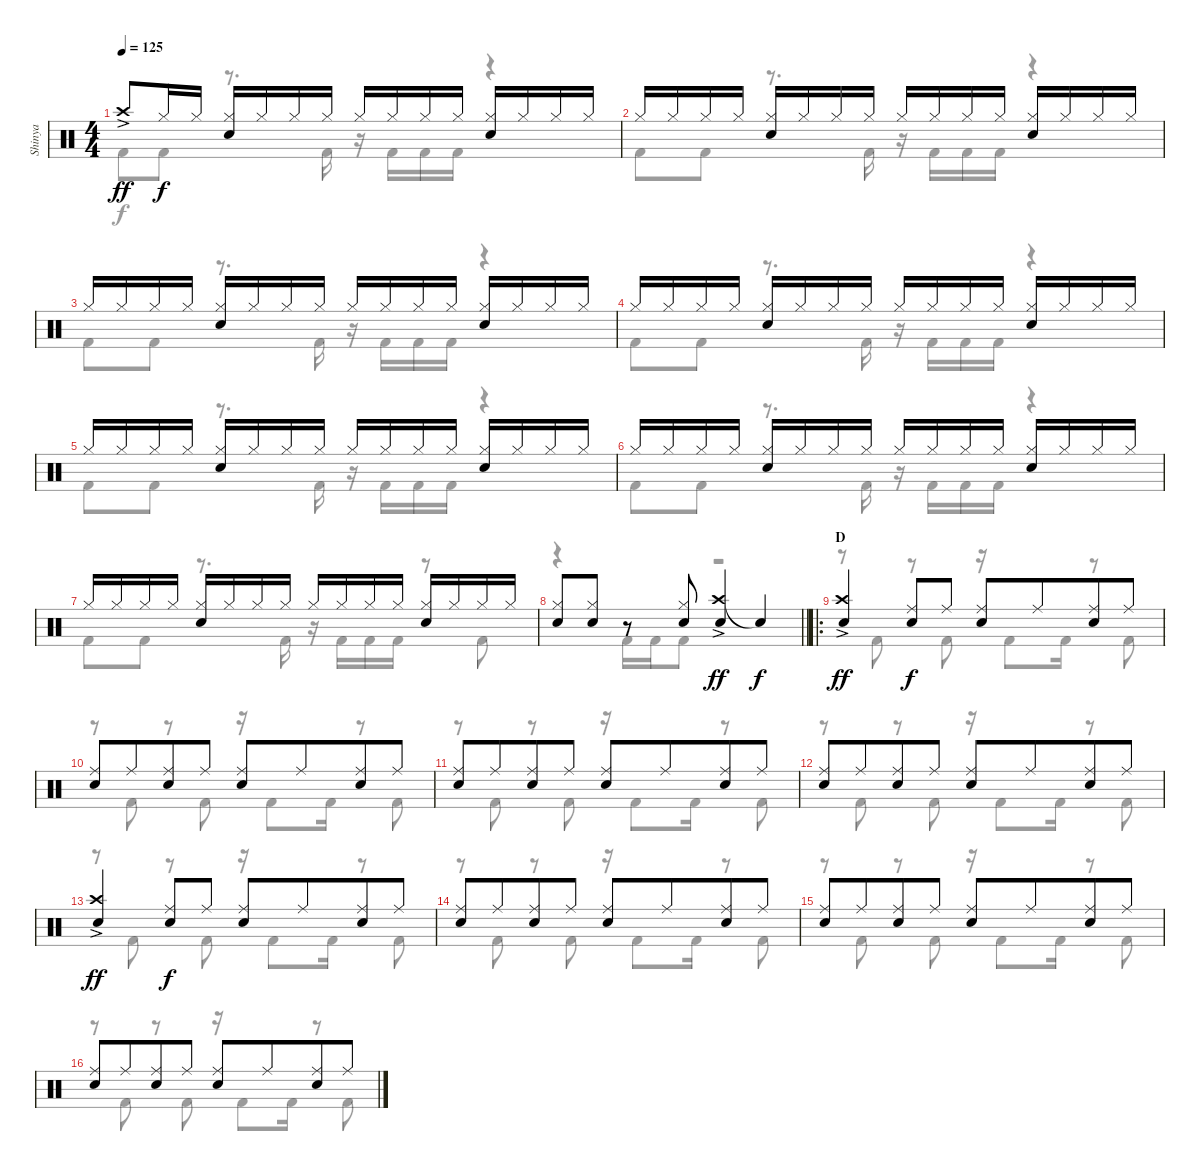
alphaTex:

\track ("Shinya" "Shinya") {instrument percussion}
\staff {score}
\articulation defaults
\voice
\ts (4 4)
\tempo 125
\clef neutral
\ks c "Crash high (hit)"{ac}.8{dy ff} "Hi-Hat (closed)".16{dy f} "Hi-Hat (closed)".16
("Hi-Hat (closed)" "Snare (hit) 2").16 "Hi-Hat (closed)".16 "Hi-Hat (closed)".16 "Hi-Hat (closed)".16 "Hi-Hat (closed)".16 "Hi-Hat (closed)".16 "Hi-Hat (closed)".16 "Hi-Hat (closed)".16 ("Hi-Hat (closed)" "Snare (hit) 2").16 "Hi-Hat (closed)".16 "Hi-Hat (closed)".16 "Hi-Hat (closed)".16 |
"Hi-Hat (closed)".16 "Hi-Hat (closed)".16 "Hi-Hat (closed)".16 "Hi-Hat (closed)".16 ("Hi-Hat (closed)" "Snare (hit) 2").16 "Hi-Hat (closed)".16 "Hi-Hat (closed)".16 "Hi-Hat (closed)".16 "Hi-Hat (closed)".16 "Hi-Hat (closed)".16 "Hi-Hat (closed)".16 "Hi-Hat (closed)".16 ("Hi-Hat (closed)" "Snare (hit) 2").16 "Hi-Hat (closed)".16 "Hi-Hat (closed)".16 "Hi-Hat (closed)".16 |
"Hi-Hat (closed)".16 "Hi-Hat (closed)".16 "Hi-Hat (closed)".16 "Hi-Hat (closed)".16 ("Hi-Hat (closed)" "Snare (hit) 2").16 "Hi-Hat (closed)".16 "Hi-Hat (closed)".16 "Hi-Hat (closed)".16 "Hi-Hat (closed)".16 "Hi-Hat (closed)".16 "Hi-Hat (closed)".16 "Hi-Hat (closed)".16 ("Hi-Hat (closed)" "Snare (hit) 2").16 "Hi-Hat (closed)".16 "Hi-Hat (closed)".16 "Hi-Hat (closed)".16 |
"Hi-Hat (closed)".16 "Hi-Hat (closed)".16 "Hi-Hat (closed)".16 "Hi-Hat (closed)".16 ("Hi-Hat (closed)" "Snare (hit) 2").16 "Hi-Hat (closed)".16 "Hi-Hat (closed)".16 "Hi-Hat (closed)".16 "Hi-Hat (closed)".16 "Hi-Hat (closed)".16 "Hi-Hat (closed)".16 "Hi-Hat (closed)".16 ("Hi-Hat (closed)" "Snare (hit) 2").16 "Hi-Hat (closed)".16 "Hi-Hat (closed)".16 "Hi-Hat (closed)".16 |
"Hi-Hat (closed)".16 "Hi-Hat (closed)".16 "Hi-Hat (closed)".16 "Hi-Hat (closed)".16 ("Hi-Hat (closed)" "Snare (hit) 2").16 "Hi-Hat (closed)".16 "Hi-Hat (closed)".16 "Hi-Hat (closed)".16 "Hi-Hat (closed)".16 "Hi-Hat (closed)".16 "Hi-Hat (closed)".16 "Hi-Hat (closed)".16 ("Hi-Hat (closed)" "Snare (hit) 2").16 "Hi-Hat (closed)".16 "Hi-Hat (closed)".16 "Hi-Hat (closed)".16 |
"Hi-Hat (closed)".16 "Hi-Hat (closed)".16 "Hi-Hat (closed)".16 "Hi-Hat (closed)".16 ("Hi-Hat (closed)" "Snare (hit) 2").16 "Hi-Hat (closed)".16 "Hi-Hat (closed)".16 "Hi-Hat (closed)".16 "Hi-Hat (closed)".16 "Hi-Hat (closed)".16 "Hi-Hat (closed)".16 "Hi-Hat (closed)".16 ("Hi-Hat (closed)" "Snare (hit) 2").16 "Hi-Hat (closed)".16 "Hi-Hat (closed)".16 "Hi-Hat (closed)".16 |
"Hi-Hat (closed)".16 "Hi-Hat (closed)".16 "Hi-Hat (closed)".16 "Hi-Hat (closed)".16 ("Hi-Hat (closed)" "Snare (hit) 2").16 "Hi-Hat (closed)".16 "Hi-Hat (closed)".16 "Hi-Hat (closed)".16 "Hi-Hat (closed)".16 "Hi-Hat (closed)".16 "Hi-Hat (closed)".16 "Hi-Hat (closed)".16 ("Hi-Hat (closed)" "Snare (hit) 2").16 "Hi-Hat (closed)".16 "Hi-Hat (closed)".16 "Hi-Hat (closed)".16 |
\barLineRight lightlight
("Hi-Hat (closed)" "Snare (hit) 2").8 ("Hi-Hat (closed)" "Snare (hit) 2").8 r.8 ("Hi-Hat (closed)" "Snare (hit) 2").8 ("Crash high (hit)"{ac} "Snare (hit) 2").4{dy ff} "Snare (hit)"{t}.4{dy f} |
\ro
\section ("" "D")
("Crash high (hit)"{ac} "Snare (hit) 2").4{dy ff} ("Ride (middle)" "Snare (hit) 2").8{dy f} "Ride (middle)".8 ("Ride (middle)" "Snare (hit) 2").8 "Ride (middle)".8{beam merge} ("Ride (middle)" "Snare (hit) 2").8 "Ride (middle)".8 |
("Ride (middle)" "Snare (hit) 2").8 "Ride (middle)".8{beam merge} ("Ride (middle)" "Snare (hit) 2").8 "Ride (middle)".8 ("Ride (middle)" "Snare (hit) 2").8 "Ride (middle)".8{beam merge} ("Ride (middle)" "Snare (hit) 2").8 "Ride (middle)".8 |
("Ride (middle)" "Snare (hit) 2").8 "Ride (middle)".8{beam merge} ("Ride (middle)" "Snare (hit) 2").8 "Ride (middle)".8 ("Ride (middle)" "Snare (hit) 2").8 "Ride (middle)".8{beam merge} ("Ride (middle)" "Snare (hit) 2").8 "Ride (middle)".8 |
("Ride (middle)" "Snare (hit) 2").8 "Ride (middle)".8{beam merge} ("Ride (middle)" "Snare (hit) 2").8 "Ride (middle)".8 ("Ride (middle)" "Snare (hit) 2").8 "Ride (middle)".8{beam merge} ("Ride (middle)" "Snare (hit) 2").8 "Ride (middle)".8 |
("Crash high (hit)"{ac} "Snare (hit) 2").4{dy ff} ("Ride (middle)" "Snare (hit) 2").8{dy f} "Ride (middle)".8 ("Ride (middle)" "Snare (hit) 2").8 "Ride (middle)".8{beam merge} ("Ride (middle)" "Snare (hit) 2").8 "Ride (middle)".8 |
("Ride (middle)" "Snare (hit) 2").8 "Ride (middle)".8{beam merge} ("Ride (middle)" "Snare (hit) 2").8 "Ride (middle)".8 ("Ride (middle)" "Snare (hit) 2").8 "Ride (middle)".8{beam merge} ("Ride (middle)" "Snare (hit) 2").8 "Ride (middle)".8 |
("Ride (middle)" "Snare (hit) 2").8 "Ride (middle)".8{beam merge} ("Ride (middle)" "Snare (hit) 2").8 "Ride (middle)".8 ("Ride (middle)" "Snare (hit) 2").8 "Ride (middle)".8{beam merge} ("Ride (middle)" "Snare (hit) 2").8 "Ride (middle)".8 |
("Ride (middle)" "Snare (hit) 2").8 "Ride (middle)".8{beam merge} ("Ride (middle)" "Snare (hit) 2").8 "Ride (middle)".8 ("Ride (middle)" "Snare (hit) 2").8 "Ride (middle)".8{beam merge} ("Ride (middle)" "Snare (hit) 2").8 "Ride (middle)".8
\voice
\clef neutral
\ottava regular
\simile none
\ks c "Kick (hit) 2".8{dy f} "Kick (hit) 2".8
r.8{d} "Kick (hit) 2".16 r.16 "Kick (hit) 2".16 "Kick (hit) 2".16 "Kick (hit) 2".16 r.4 |
"Kick (hit) 2".8 "Kick (hit) 2".8 r.8{d} "Kick (hit) 2".16 r.16 "Kick (hit) 2".16 "Kick (hit) 2".16 "Kick (hit) 2".16 r.4 |
"Kick (hit) 2".8 "Kick (hit) 2".8 r.8{d} "Kick (hit) 2".16 r.16 "Kick (hit) 2".16 "Kick (hit) 2".16 "Kick (hit) 2".16 r.4 |
"Kick (hit) 2".8 "Kick (hit) 2".8 r.8{d} "Kick (hit) 2".16 r.16 "Kick (hit) 2".16 "Kick (hit) 2".16 "Kick (hit) 2".16 r.4 |
"Kick (hit) 2".8 "Kick (hit) 2".8 r.8{d} "Kick (hit) 2".16 r.16 "Kick (hit) 2".16 "Kick (hit) 2".16 "Kick (hit) 2".16 r.4 |
"Kick (hit) 2".8 "Kick (hit) 2".8 r.8{d} "Kick (hit) 2".16 r.16 "Kick (hit) 2".16 "Kick (hit) 2".16 "Kick (hit) 2".16 r.4 |
"Kick (hit) 2".8 "Kick (hit) 2".8 r.8{d} "Kick (hit) 2".16 r.16 "Kick (hit) 2".16 "Kick (hit) 2".16 "Kick (hit) 2".16 r.8 "Kick (hit) 2".8 |
\barLineRight lightlight
r.4 "Kick (hit) 2".16 "Kick (hit) 2".16 "Kick (hit) 2".8 r.2 |
r.8 "Kick (hit) 2".8 r.8 "Kick (hit) 2".8 r.16 "Kick (hit) 2".8 "Kick (hit) 2".16 r.8 "Kick (hit) 2".8 |
r.8 "Kick (hit) 2".8 r.8 "Kick (hit) 2".8 r.16 "Kick (hit) 2".8 "Kick (hit) 2".16 r.8 "Kick (hit) 2".8 |
r.8 "Kick (hit) 2".8 r.8 "Kick (hit) 2".8 r.16 "Kick (hit) 2".8 "Kick (hit) 2".16 r.8 "Kick (hit) 2".8 |
r.8 "Kick (hit) 2".8 r.8 "Kick (hit) 2".8 r.16 "Kick (hit) 2".8 "Kick (hit) 2".16 r.8 "Kick (hit) 2".8 |
r.8 "Kick (hit) 2".8 r.8 "Kick (hit) 2".8 r.16 "Kick (hit) 2".8 "Kick (hit) 2".16 r.8 "Kick (hit) 2".8 |
r.8 "Kick (hit) 2".8 r.8 "Kick (hit) 2".8 r.16 "Kick (hit) 2".8 "Kick (hit) 2".16 r.8 "Kick (hit) 2".8 |
r.8 "Kick (hit) 2".8 r.8 "Kick (hit) 2".8 r.16 "Kick (hit) 2".8 "Kick (hit) 2".16 r.8 "Kick (hit) 2".8 |
r.8 "Kick (hit) 2".8 r.8 "Kick (hit) 2".8 r.16 "Kick (hit) 2".8 "Kick (hit) 2".16 r.8 "Kick (hit) 2".8
